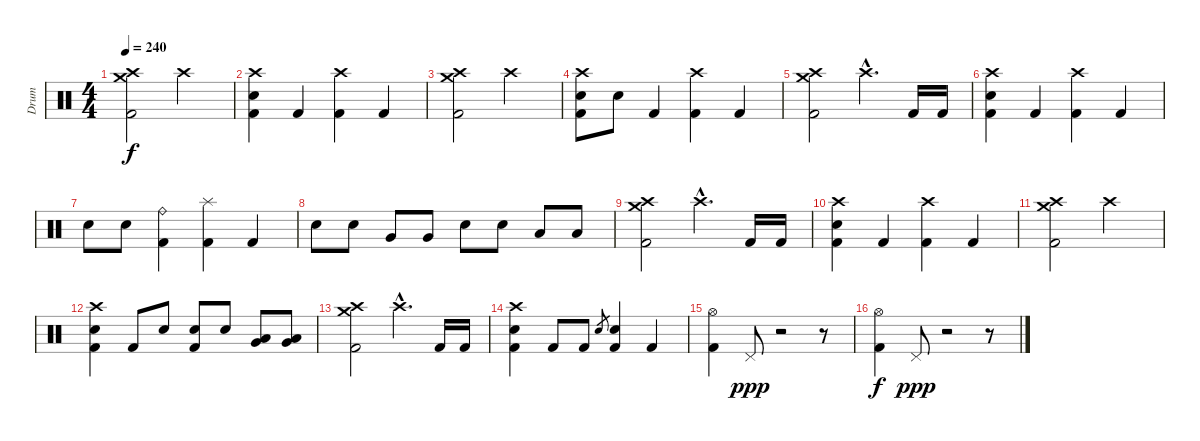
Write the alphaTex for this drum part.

\track ("Drum" "Drum") {instrument percussion}
\staff {score}
\articulation defaults
\ts (4 4)
\tempo 240
\clef neutral
\ks c
("Crash medium (hit)" "Crash high (hit)" "Kick (hit) 2").2{dy f} "Crash high (hit)".2 |
("Crash high (hit)" "Electric Snare (hit)" "Kick (hit) 2").4 "Kick (hit) 2".4 ("Crash high (hit)" "Kick (hit) 2").4 "Kick (hit) 2".4 |
("Crash medium (hit)" "Crash high (hit)" "Kick (hit) 2").2 "Crash high (hit)".2 |
("Crash high (hit)" "Electric Snare (hit)" "Kick (hit) 2").8 "Electric Snare (hit)".8 "Kick (hit) 2".4 ("Crash high (hit)" "Kick (hit) 2").4 "Kick (hit) 2".4 |
("Crash medium (hit)" "Crash high (hit)" "Kick (hit) 2").2 "Crash high (hit)"{hac}.4{d} "Kick (hit) 2".16 "Kick (hit) 2".16 |
("Crash high (hit)" "Electric Snare (hit)" "Kick (hit) 2").4 "Kick (hit) 2".4 ("Crash high (hit)" "Kick (hit) 2").4 "Kick (hit) 2".4 |
"Electric Snare (hit)".8 "Electric Snare (hit)".8 ("Ride (bell)" "Kick (hit) 2").4 ("Splash (hit)" "Kick (hit) 2").4 "Kick (hit) 2".4 |
"Electric Snare (hit)".8 "Electric Snare (hit)".8 "Very Low Tom (hit)".8 "Very Low Tom (hit)".8 "Electric Snare (hit)".8 "Electric Snare (hit)".8 "Low Tom (hit)".8 "Low Tom (hit)".8 |
("Crash medium (hit)" "Crash high (hit)" "Kick (hit) 2").2 "Crash high (hit)"{hac}.4{d} "Kick (hit) 2".16 "Kick (hit) 2".16 |
("Crash high (hit)" "Electric Snare (hit)" "Kick (hit) 2").4 "Kick (hit) 2".4 ("Crash high (hit)" "Kick (hit) 2").4 "Kick (hit) 2".4 |
("Crash medium (hit)" "Crash high (hit)" "Kick (hit) 2").2 "Crash high (hit)".2 |
("Crash high (hit)" "Electric Snare (hit)" "Kick (hit) 2").4 "Kick (hit) 2".8 "Electric Snare (hit)".8 ("Electric Snare (hit)" "Kick (hit) 2").8 "Electric Snare (hit)".8 ("Very Low Tom (hit)" "Low Tom (hit)").8 ("Very Low Tom (hit)" "Low Tom (hit)").8 |
("Crash medium (hit)" "Crash high (hit)" "Kick (hit) 2").2 "Crash high (hit)"{hac}.4{d} "Kick (hit) 2".16 "Kick (hit) 2".16 |
("Crash high (hit)" "Electric Snare (hit)" "Kick (hit) 2").4 "Kick (hit) 2".8 "Kick (hit) 2".8 "Electric Snare (hit)".8{gr} ("Electric Snare (hit)" "Kick (hit) 2").4 "Kick (hit) 2".4 |
("Hi-Hat (open)" "Kick (hit) 2").4 "Pedal Hi-Hat (hit)".8{dy ppp} r.2 r.8 |
("Hi-Hat (open)" "Kick (hit) 2").4{dy f} "Pedal Hi-Hat (hit)".8{dy ppp} r.2 r.8
